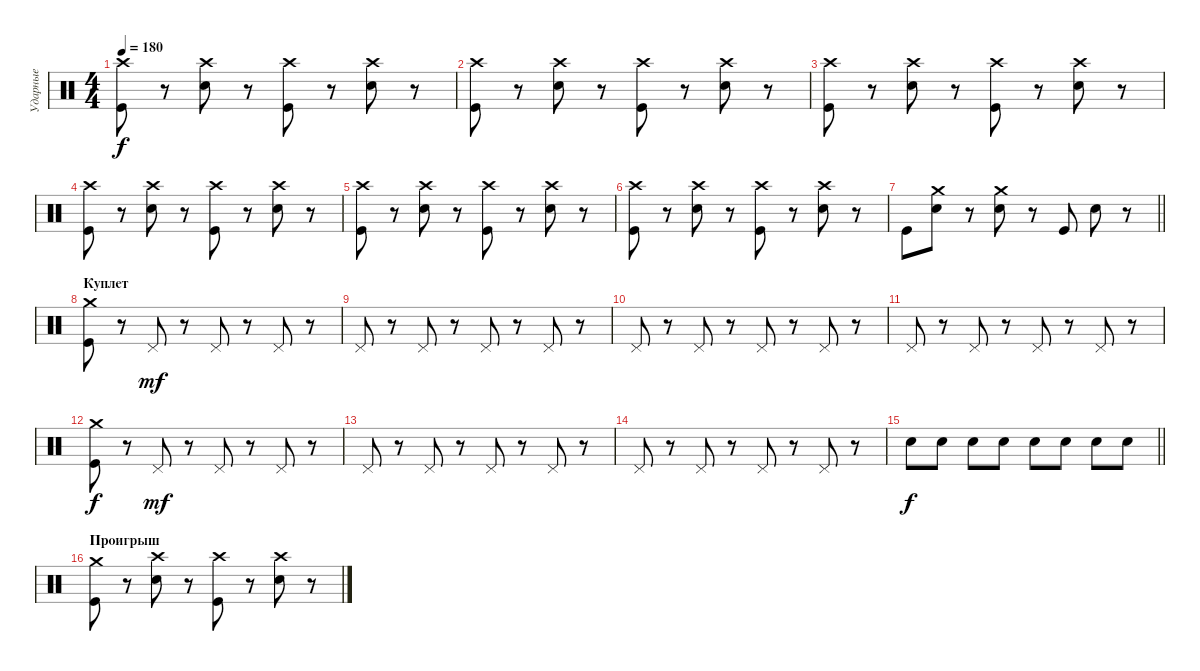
\track ("Ударные" "Ударные") {instrument percussion}
\staff {score}
\articulation defaults
\ts (4 4)
\tempo 180
\clef neutral
\ks c
("Crash high (hit)" "Kick (hit)").8{dy f} r.8 ("Crash high (hit)" "Electric Snare (hit)").8 r.8 ("Crash high (hit)" "Kick (hit)").8 r.8 ("Crash high (hit)" "Electric Snare (hit)").8 r.8 |
("Crash high (hit)" "Kick (hit)").8 r.8 ("Crash high (hit)" "Electric Snare (hit)").8 r.8 ("Crash high (hit)" "Kick (hit)").8 r.8 ("Crash high (hit)" "Electric Snare (hit)").8 r.8 |
("Crash high (hit)" "Kick (hit)").8 r.8 ("Crash high (hit)" "Electric Snare (hit)").8 r.8 ("Crash high (hit)" "Kick (hit)").8 r.8 ("Crash high (hit)" "Electric Snare (hit)").8 r.8 |
("Crash high (hit)" "Kick (hit)").8 r.8 ("Crash high (hit)" "Electric Snare (hit)").8 r.8 ("Crash high (hit)" "Kick (hit)").8 r.8 ("Crash high (hit)" "Electric Snare (hit)").8 r.8 |
("Crash high (hit)" "Kick (hit)").8 r.8 ("Crash high (hit)" "Electric Snare (hit)").8 r.8 ("Crash high (hit)" "Kick (hit)").8 r.8 ("Crash high (hit)" "Electric Snare (hit)").8 r.8 |
("Crash high (hit)" "Kick (hit)").8 r.8 ("Crash high (hit)" "Electric Snare (hit)").8 r.8 ("Crash high (hit)" "Kick (hit)").8 r.8 ("Crash high (hit)" "Electric Snare (hit)").8 r.8 |
\barLineRight lightlight "Kick (hit)".8
("Crash medium (hit)" "Electric Snare (hit)").8 r.8 ("Crash medium (hit)" "Electric Snare (hit)").8 r.8 "Kick (hit)".8 "Electric Snare (hit)".8 r.8 |
\section ("" "Куплет")
("Crash medium (hit)" "Kick (hit)").8 r.8 "Pedal Hi-Hat (hit)".8{dy mf} r.8 "Pedal Hi-Hat (hit)".8 r.8 "Pedal Hi-Hat (hit)".8 r.8 |
"Pedal Hi-Hat (hit)".8 r.8 "Pedal Hi-Hat (hit)".8 r.8 "Pedal Hi-Hat (hit)".8 r.8 "Pedal Hi-Hat (hit)".8 r.8 |
"Pedal Hi-Hat (hit)".8 r.8 "Pedal Hi-Hat (hit)".8 r.8 "Pedal Hi-Hat (hit)".8 r.8 "Pedal Hi-Hat (hit)".8 r.8 |
"Pedal Hi-Hat (hit)".8 r.8 "Pedal Hi-Hat (hit)".8 r.8 "Pedal Hi-Hat (hit)".8 r.8 "Pedal Hi-Hat (hit)".8 r.8 |
("Crash medium (hit)" "Kick (hit)").8{dy f} r.8 "Pedal Hi-Hat (hit)".8{dy mf} r.8 "Pedal Hi-Hat (hit)".8 r.8 "Pedal Hi-Hat (hit)".8 r.8 |
"Pedal Hi-Hat (hit)".8 r.8 "Pedal Hi-Hat (hit)".8 r.8 "Pedal Hi-Hat (hit)".8 r.8 "Pedal Hi-Hat (hit)".8 r.8 |
"Pedal Hi-Hat (hit)".8 r.8 "Pedal Hi-Hat (hit)".8 r.8 "Pedal Hi-Hat (hit)".8 r.8 "Pedal Hi-Hat (hit)".8 r.8 |
\barLineRight lightlight "Electric Snare (hit)".8{dy f} "Electric Snare (hit)".8 "Electric Snare (hit)".8 "Electric Snare (hit)".8 "Electric Snare (hit)".8 "Electric Snare (hit)".8 "Electric Snare (hit)".8 "Electric Snare (hit)".8
|
\section ("" "Проигрыш")
("Crash medium (hit)" "Kick (hit)").8 r.8 ("Crash high (hit)" "Electric Snare (hit)").8 r.8 ("Crash high (hit)" "Kick (hit)").8 r.8 ("Crash high (hit)" "Electric Snare (hit)").8 r.8
